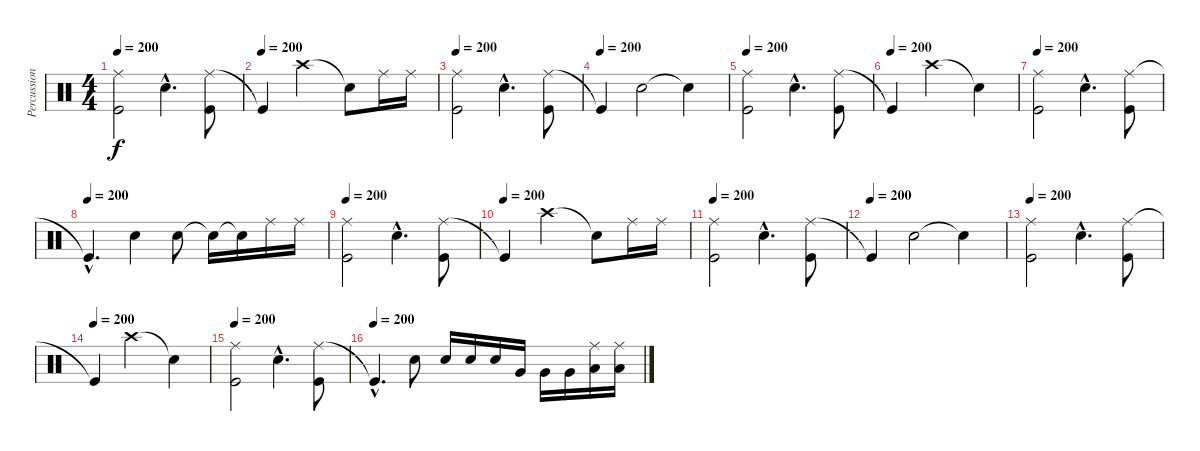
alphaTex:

\track ("Percussion" "Percussion") {instrument percussion}
\staff {score}
\articulation defaults
\ts (4 4)
\tempo 200
\clef neutral
\ks c
("Ride (middle)" "Kick (hit)").2{dy f} "Electric Snare (hit)"{hac}.4{d} ("Ride (middle)" "Kick (hit)").8 |
\tempo (200)
"Kick (hit)"{t}.4 "Crash high (hit)".2 "Snare (hit)"{t}.8 "Ride (middle)".16 "Ride (middle)".16 |
\tempo 200
("Ride (middle)" "Kick (hit)").2 "Electric Snare (hit)"{hac}.4{d} ("Ride (middle)" "Kick (hit)").8 |
\tempo (200)
"Kick (hit)"{t}.4 "Electric Snare (hit)".2 "Snare (hit)"{t}.4 |
\tempo 200
("Ride (middle)" "Kick (hit)").2 "Electric Snare (hit)"{hac}.4{d} ("Ride (middle)" "Kick (hit)").8 |
\tempo (200)
"Kick (hit)"{t}.4 "Crash high (hit)".2 "Snare (hit)"{t}.4 |
\tempo 200
("Ride (middle)" "Kick (hit)").2 "Electric Snare (hit)"{hac}.4{d} ("Ride (middle)" "Kick (hit)").8 |
\tempo (200)
"Kick (hit)"{hac t}.4{d} "Electric Snare (hit)".4 "Electric Snare (hit)".8 "Snare (hit)"{t}.16 "Snare (hit)"{t}.16 "Ride (middle)".16 "Ride (middle)".16 |
\tempo 200
("Ride (middle)" "Kick (hit)").2 "Electric Snare (hit)"{hac}.4{d} ("Ride (middle)" "Kick (hit)").8 |
\tempo (200)
"Kick (hit)"{t}.4 "Crash high (hit)".2 "Snare (hit)"{t}.8 "Ride (middle)".16 "Ride (middle)".16 |
\tempo 200
("Ride (middle)" "Kick (hit)").2 "Electric Snare (hit)"{hac}.4{d} ("Ride (middle)" "Kick (hit)").8 |
\tempo (200)
"Kick (hit)"{t}.4 "Electric Snare (hit)".2 "Snare (hit)"{t}.4 |
\tempo 200
("Ride (middle)" "Kick (hit)").2 "Electric Snare (hit)"{hac}.4{d} ("Ride (middle)" "Kick (hit)").8 |
\tempo (200)
"Kick (hit)"{t}.4 "Crash high (hit)".2 "Snare (hit)"{t}.4 |
\tempo 200
("Ride (middle)" "Kick (hit)").2 "Electric Snare (hit)"{hac}.4{d} ("Ride (middle)" "Kick (hit)").8 |
\tempo (200)
"Kick (hit)"{hac t}.4{d} "Electric Snare (hit)".8 "Electric Snare (hit)".16 "Electric Snare (hit)".16 "Electric Snare (hit)".16 "Very Low Tom (hit)".16 "Very Low Tom (hit)".16 "Very Low Tom (hit)".16 ("Ride (middle)" "Low Floor Tom (hit)").16 ("Ride (middle)" "Low Floor Tom (hit)").16
